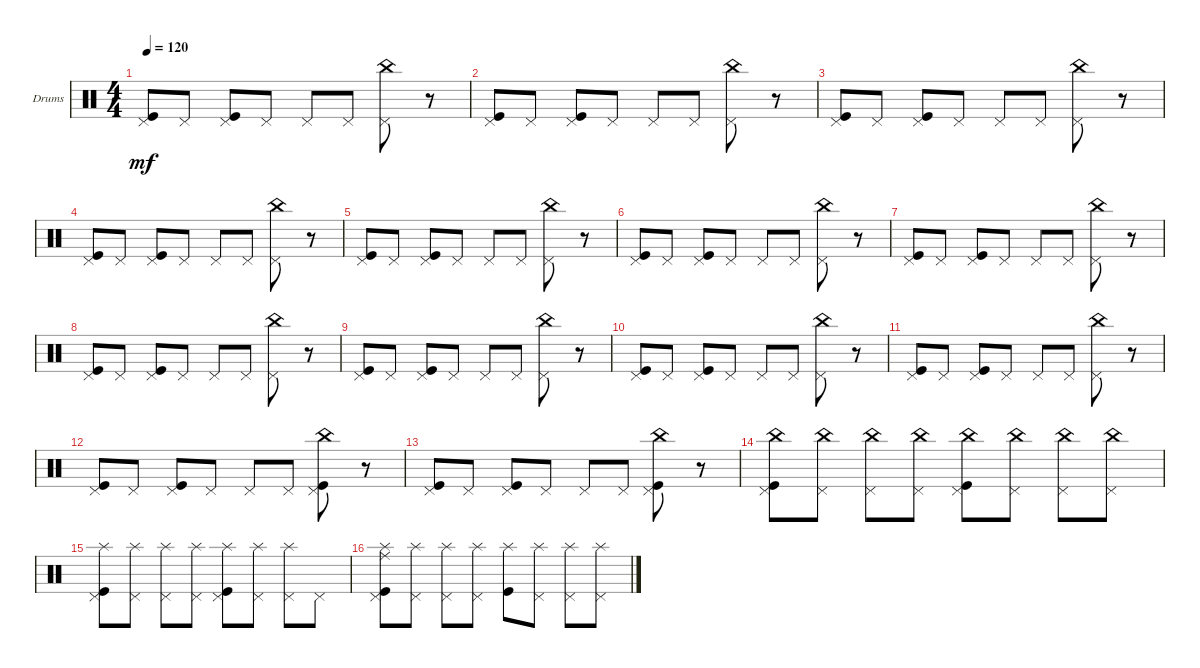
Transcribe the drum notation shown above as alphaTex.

\defaultSystemsLayout 4
\bracketExtendMode groupsimilarinstruments
\firstSystemTrackNameOrientation horizontal
\otherSystemsTrackNameOrientation horizontal
\track ("Drumkit" "Drums") {instrument percussion}
\staff {score}
\articulation defaults
\ts (4 4)
\tempo 120
\clef neutral
\scale
0.333333
\ks c
("Pedal Hi-Hat (hit)" "Kick (hit)").8{dy mf} "Pedal Hi-Hat (hit)".8 ("Pedal Hi-Hat (hit)" "Kick (hit)").8 "Pedal Hi-Hat (hit)".8 "Pedal Hi-Hat (hit)".8 "Pedal Hi-Hat (hit)".8 ("Pedal Hi-Hat (hit)" "China (hit)").8 r.8 |
\scale
0.333333 ("Pedal Hi-Hat (hit)" "Kick (hit)").8 "Pedal Hi-Hat (hit)".8 ("Pedal Hi-Hat (hit)" "Kick (hit)").8 "Pedal Hi-Hat (hit)".8 "Pedal Hi-Hat (hit)".8 "Pedal Hi-Hat (hit)".8 ("Pedal Hi-Hat (hit)" "China (hit)").8 r.8 |
\scale
0.333333 ("Pedal Hi-Hat (hit)" "Kick (hit)").8 "Pedal Hi-Hat (hit)".8 ("Pedal Hi-Hat (hit)" "Kick (hit)").8 "Pedal Hi-Hat (hit)".8 "Pedal Hi-Hat (hit)".8 "Pedal Hi-Hat (hit)".8 ("Pedal Hi-Hat (hit)" "China (hit)").8 r.8 |
\scale
0.333333 ("Pedal Hi-Hat (hit)" "Kick (hit)").8 "Pedal Hi-Hat (hit)".8 ("Pedal Hi-Hat (hit)" "Kick (hit)").8 "Pedal Hi-Hat (hit)".8 "Pedal Hi-Hat (hit)".8 "Pedal Hi-Hat (hit)".8 ("Pedal Hi-Hat (hit)" "China (hit)").8 r.8 |
\scale
0.333333 ("Pedal Hi-Hat (hit)" "Kick (hit)").8 "Pedal Hi-Hat (hit)".8 ("Pedal Hi-Hat (hit)" "Kick (hit)").8 "Pedal Hi-Hat (hit)".8 "Pedal Hi-Hat (hit)".8 "Pedal Hi-Hat (hit)".8 ("Pedal Hi-Hat (hit)" "China (hit)").8 r.8 |
\scale
0.333333 ("Pedal Hi-Hat (hit)" "Kick (hit)").8 "Pedal Hi-Hat (hit)".8 ("Pedal Hi-Hat (hit)" "Kick (hit)").8 "Pedal Hi-Hat (hit)".8 "Pedal Hi-Hat (hit)".8 "Pedal Hi-Hat (hit)".8 ("Pedal Hi-Hat (hit)" "China (hit)").8 r.8 |
\scale
0.333333 ("Pedal Hi-Hat (hit)" "Kick (hit)").8 "Pedal Hi-Hat (hit)".8 ("Pedal Hi-Hat (hit)" "Kick (hit)").8 "Pedal Hi-Hat (hit)".8 "Pedal Hi-Hat (hit)".8 "Pedal Hi-Hat (hit)".8 ("Pedal Hi-Hat (hit)" "China (hit)").8 r.8 |
\scale
0.333333 ("Pedal Hi-Hat (hit)" "Kick (hit)").8 "Pedal Hi-Hat (hit)".8 ("Pedal Hi-Hat (hit)" "Kick (hit)").8 "Pedal Hi-Hat (hit)".8 "Pedal Hi-Hat (hit)".8 "Pedal Hi-Hat (hit)".8 ("Pedal Hi-Hat (hit)" "China (hit)").8 r.8 |
\scale
0.333333 ("Pedal Hi-Hat (hit)" "Kick (hit)").8 "Pedal Hi-Hat (hit)".8 ("Pedal Hi-Hat (hit)" "Kick (hit)").8 "Pedal Hi-Hat (hit)".8 "Pedal Hi-Hat (hit)".8 "Pedal Hi-Hat (hit)".8 ("Pedal Hi-Hat (hit)" "China (hit)").8 r.8 |
\scale
0.333333 ("Pedal Hi-Hat (hit)" "Kick (hit)").8 "Pedal Hi-Hat (hit)".8 ("Pedal Hi-Hat (hit)" "Kick (hit)").8 "Pedal Hi-Hat (hit)".8 "Pedal Hi-Hat (hit)".8 "Pedal Hi-Hat (hit)".8 ("Pedal Hi-Hat (hit)" "China (hit)").8 r.8 |
\scale
0.333333 ("Pedal Hi-Hat (hit)" "Kick (hit)").8 "Pedal Hi-Hat (hit)".8 ("Pedal Hi-Hat (hit)" "Kick (hit)").8 "Pedal Hi-Hat (hit)".8 "Pedal Hi-Hat (hit)".8 "Pedal Hi-Hat (hit)".8 ("Pedal Hi-Hat (hit)" "China (hit)").8 r.8 |
\scale
0.333333 ("Pedal Hi-Hat (hit)" "Kick (hit)").8 "Pedal Hi-Hat (hit)".8 ("Pedal Hi-Hat (hit)" "Kick (hit)").8 "Pedal Hi-Hat (hit)".8 "Pedal Hi-Hat (hit)".8 "Pedal Hi-Hat (hit)".8 ("Pedal Hi-Hat (hit)" "China (hit)" "Kick (hit)").8 r.8 |
\scale
0.333333 ("Pedal Hi-Hat (hit)" "Kick (hit)").8 "Pedal Hi-Hat (hit)".8 ("Pedal Hi-Hat (hit)" "Kick (hit)").8 "Pedal Hi-Hat (hit)".8 "Pedal Hi-Hat (hit)".8 "Pedal Hi-Hat (hit)".8 ("Pedal Hi-Hat (hit)" "Kick (hit)" "China (hit)").8 r.8 |
\scale
0.333333 ("Pedal Hi-Hat (hit)" "China (hit)" "Kick (hit)").8 ("Pedal Hi-Hat (hit)" "China (hit)").8 ("Pedal Hi-Hat (hit)" "China (hit)").8 ("Pedal Hi-Hat (hit)" "China (hit)").8 ("Pedal Hi-Hat (hit)" "China (hit)" "Kick (hit)").8 ("Pedal Hi-Hat (hit)" "China (hit)").8 ("Pedal Hi-Hat (hit)" "China (hit)").8 ("Pedal Hi-Hat (hit)" "China (hit)").8 |
\scale
0.333333 ("Kick (hit)" "Splash (hit)" "Pedal Hi-Hat (hit)").8 ("Splash (hit)" "Pedal Hi-Hat (hit)").8 ("Splash (hit)" "Pedal Hi-Hat (hit)").8 ("Splash (hit)" "Pedal Hi-Hat (hit)").8 ("Kick (hit)" "Splash (hit)" "Pedal Hi-Hat (hit)").8 ("Splash (hit)" "Pedal Hi-Hat (hit)").8 ("Splash (hit)" "Pedal Hi-Hat (hit)").8 "Pedal Hi-Hat (hit)".8 |
\scale
0.333333 ("Kick (hit)" "Ride (middle)" "Splash (hit)" "Pedal Hi-Hat (hit)").8 ("Splash (hit)" "Pedal Hi-Hat (hit)").8 ("Splash (hit)" "Pedal Hi-Hat (hit)").8 ("Splash (hit)" "Pedal Hi-Hat (hit)").8 ("Kick (hit)" "Splash (hit)").8 ("Splash (hit)" "Pedal Hi-Hat (hit)").8 ("Splash (hit)" "Pedal Hi-Hat (hit)").8 ("Splash (hit)" "Pedal Hi-Hat (hit)").8
